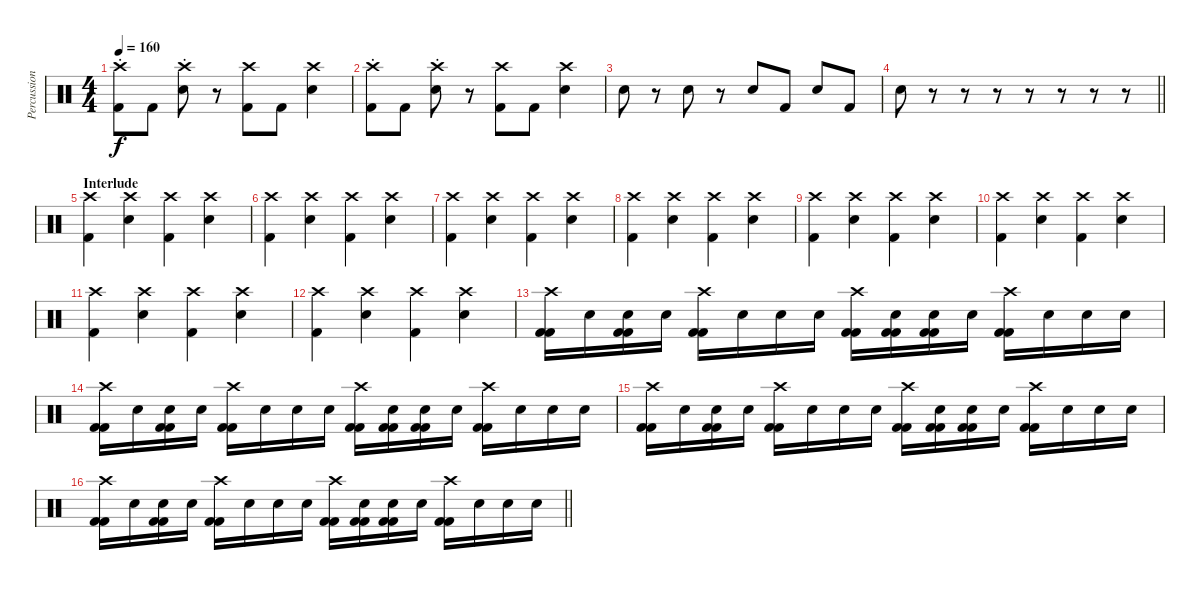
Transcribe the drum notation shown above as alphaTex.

\track ("Percussion" "Percussion") {instrument percussion}
\staff {score}
\articulation defaults
\ts (4 4)
\tempo 160
\clef neutral
\ks c
("Crash high (hit)"{st} "Kick (hit) 2").8{dy f} "Kick (hit) 2".8 ("Crash high (hit)"{st} "Snare (hit) 2").8 r.8 ("Crash high (hit)" "Kick (hit) 2").8 "Kick (hit) 2".8 ("Crash high (hit)" "Snare (hit) 2").4 |
("Crash high (hit)"{st} "Kick (hit) 2").8 "Kick (hit) 2".8 ("Crash high (hit)"{st} "Snare (hit) 2").8 r.8 ("Crash high (hit)" "Kick (hit) 2").8 "Kick (hit) 2".8 ("Crash high (hit)" "Snare (hit) 2").4 |
"Snare (hit) 2".8 r.8 "Snare (hit) 2".8 r.8 "Snare (hit) 2".8 "Kick (hit) 2".8 "Snare (hit) 2".8 "Kick (hit) 2".8 |
\barLineRight lightlight "Snare (hit) 2".8
r.8 r.8 r.8 r.8 r.8 r.8 r.8 |
\section ("" "Interlude")
("Crash high (hit)" "Kick (hit) 2").4 ("Crash high (hit)" "Snare (hit) 2").4 ("Crash high (hit)" "Kick (hit) 2").4 ("Crash high (hit)" "Snare (hit) 2").4 |
("Crash high (hit)" "Kick (hit) 2").4 ("Crash high (hit)" "Snare (hit) 2").4 ("Crash high (hit)" "Kick (hit) 2").4 ("Crash high (hit)" "Snare (hit) 2").4 |
("Crash high (hit)" "Kick (hit) 2").4 ("Crash high (hit)" "Snare (hit) 2").4 ("Crash high (hit)" "Kick (hit) 2").4 ("Crash high (hit)" "Snare (hit) 2").4 |
("Crash high (hit)" "Kick (hit) 2").4 ("Crash high (hit)" "Snare (hit) 2").4 ("Crash high (hit)" "Kick (hit) 2").4 ("Crash high (hit)" "Snare (hit) 2").4 |
("Crash high (hit)" "Kick (hit) 2").4 ("Crash high (hit)" "Snare (hit) 2").4 ("Crash high (hit)" "Kick (hit) 2").4 ("Crash high (hit)" "Snare (hit) 2").4 |
("Crash high (hit)" "Kick (hit) 2").4 ("Crash high (hit)" "Snare (hit) 2").4 ("Crash high (hit)" "Kick (hit) 2").4 ("Crash high (hit)" "Snare (hit) 2").4 |
("Crash high (hit)" "Kick (hit) 2").4 ("Crash high (hit)" "Snare (hit) 2").4 ("Crash high (hit)" "Kick (hit) 2").4 ("Crash high (hit)" "Snare (hit) 2").4 |
("Crash high (hit)" "Kick (hit) 2").4 ("Crash high (hit)" "Snare (hit) 2").4 ("Crash high (hit)" "Kick (hit) 2").4 ("Crash high (hit)" "Snare (hit) 2").4 |
("Crash high (hit)" "Kick (hit) 2" "Kick (hit) 2").16 "Snare (hit)".16 ("Snare (hit)" "Kick (hit) 2" "Kick (hit) 2").16 "Snare (hit)".16 ("Crash high (hit)" "Kick (hit) 2" "Kick (hit) 2").16 "Snare (hit)".16 "Snare (hit)".16 "Snare (hit)".16 ("Crash high (hit)" "Kick (hit) 2" "Kick (hit) 2").16 ("Snare (hit)" "Kick (hit) 2" "Kick (hit) 2").16 ("Snare (hit)" "Kick (hit) 2" "Kick (hit) 2").16 "Snare (hit)".16 ("Crash high (hit)" "Kick (hit) 2" "Kick (hit) 2").16 "Snare (hit)".16 "Snare (hit)".16 "Snare (hit)".16 |
("Crash high (hit)" "Kick (hit) 2" "Kick (hit) 2").16 "Snare (hit)".16 ("Snare (hit)" "Kick (hit) 2" "Kick (hit) 2").16 "Snare (hit)".16 ("Crash high (hit)" "Kick (hit) 2" "Kick (hit) 2").16 "Snare (hit)".16 "Snare (hit)".16 "Snare (hit)".16 ("Crash high (hit)" "Kick (hit) 2" "Kick (hit) 2").16 ("Snare (hit)" "Kick (hit) 2" "Kick (hit) 2").16 ("Snare (hit)" "Kick (hit) 2" "Kick (hit) 2").16 "Snare (hit)".16 ("Crash high (hit)" "Kick (hit) 2" "Kick (hit) 2").16 "Snare (hit)".16 "Snare (hit)".16 "Snare (hit)".16 |
("Crash high (hit)" "Kick (hit) 2" "Kick (hit) 2").16 "Snare (hit)".16 ("Snare (hit)" "Kick (hit) 2" "Kick (hit) 2").16 "Snare (hit)".16 ("Crash high (hit)" "Kick (hit) 2" "Kick (hit) 2").16 "Snare (hit)".16 "Snare (hit)".16 "Snare (hit)".16 ("Crash high (hit)" "Kick (hit) 2" "Kick (hit) 2").16 ("Snare (hit)" "Kick (hit) 2" "Kick (hit) 2").16 ("Snare (hit)" "Kick (hit) 2" "Kick (hit) 2").16 "Snare (hit)".16 ("Crash high (hit)" "Kick (hit) 2" "Kick (hit) 2").16 "Snare (hit)".16 "Snare (hit)".16 "Snare (hit)".16 |
\barLineRight lightlight
("Crash high (hit)" "Kick (hit) 2" "Kick (hit) 2").16 "Snare (hit)".16 ("Snare (hit)" "Kick (hit) 2" "Kick (hit) 2").16 "Snare (hit)".16 ("Crash high (hit)" "Kick (hit) 2" "Kick (hit) 2").16 "Snare (hit)".16 "Snare (hit)".16 "Snare (hit)".16 ("Crash high (hit)" "Kick (hit) 2" "Kick (hit) 2").16 ("Snare (hit)" "Kick (hit) 2" "Kick (hit) 2").16 ("Snare (hit)" "Kick (hit) 2" "Kick (hit) 2").16 "Snare (hit)".16 ("Crash high (hit)" "Kick (hit) 2" "Kick (hit) 2").16 "Snare (hit)".16 "Snare (hit)".16 "Snare (hit)".16
